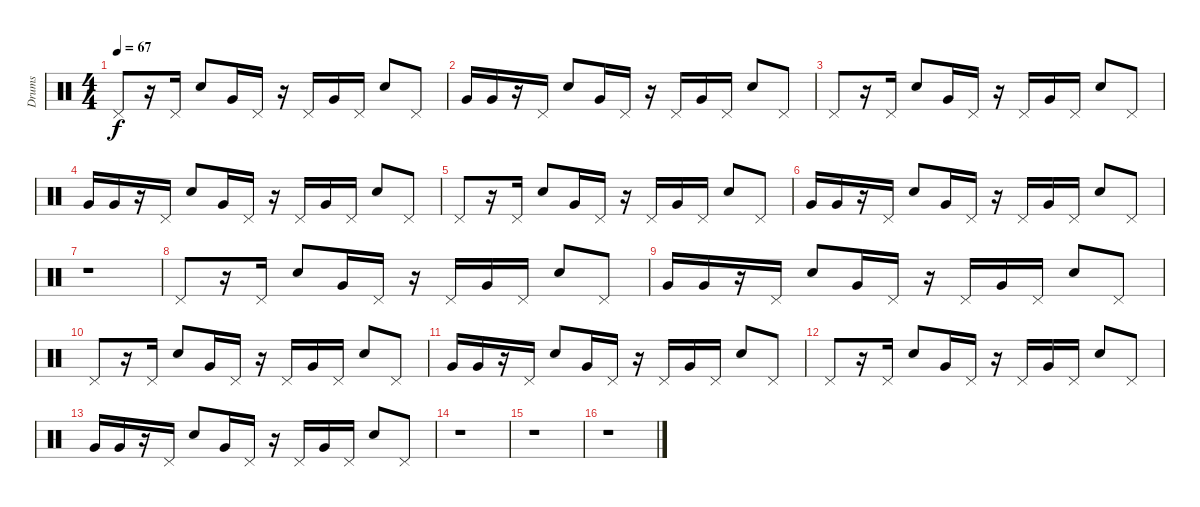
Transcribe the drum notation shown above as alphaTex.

\track ("Drums" "Drums") {instrument percussion}
\staff {score}
\articulation defaults
\ts (4 4)
\tempo 67
\clef neutral
\ks c "Pedal Hi-Hat (hit)".8{dy f}
r.16 "Pedal Hi-Hat (hit)".16 "Electric Snare (hit)".8 "Very Low Tom (hit)".16 "Pedal Hi-Hat (hit)".16 r.16 "Pedal Hi-Hat (hit)".16 "Very Low Tom (hit)".16 "Pedal Hi-Hat (hit)".16 "Electric Snare (hit)".8 "Pedal Hi-Hat (hit)".8 |
"Very Low Tom (hit)".16 "Very Low Tom (hit)".16 r.16 "Pedal Hi-Hat (hit)".16 "Electric Snare (hit)".8 "Very Low Tom (hit)".16 "Pedal Hi-Hat (hit)".16 r.16 "Pedal Hi-Hat (hit)".16 "Very Low Tom (hit)".16 "Pedal Hi-Hat (hit)".16 "Electric Snare (hit)".8 "Pedal Hi-Hat (hit)".8 |
"Pedal Hi-Hat (hit)".8 r.16 "Pedal Hi-Hat (hit)".16 "Electric Snare (hit)".8 "Very Low Tom (hit)".16 "Pedal Hi-Hat (hit)".16 r.16 "Pedal Hi-Hat (hit)".16 "Very Low Tom (hit)".16 "Pedal Hi-Hat (hit)".16 "Electric Snare (hit)".8 "Pedal Hi-Hat (hit)".8 |
"Very Low Tom (hit)".16 "Very Low Tom (hit)".16 r.16 "Pedal Hi-Hat (hit)".16 "Electric Snare (hit)".8 "Very Low Tom (hit)".16 "Pedal Hi-Hat (hit)".16 r.16 "Pedal Hi-Hat (hit)".16 "Very Low Tom (hit)".16 "Pedal Hi-Hat (hit)".16 "Electric Snare (hit)".8 "Pedal Hi-Hat (hit)".8 |
"Pedal Hi-Hat (hit)".8 r.16 "Pedal Hi-Hat (hit)".16 "Electric Snare (hit)".8 "Very Low Tom (hit)".16 "Pedal Hi-Hat (hit)".16 r.16 "Pedal Hi-Hat (hit)".16 "Very Low Tom (hit)".16 "Pedal Hi-Hat (hit)".16 "Electric Snare (hit)".8 "Pedal Hi-Hat (hit)".8 |
"Very Low Tom (hit)".16 "Very Low Tom (hit)".16 r.16 "Pedal Hi-Hat (hit)".16 "Electric Snare (hit)".8 "Very Low Tom (hit)".16 "Pedal Hi-Hat (hit)".16 r.16 "Pedal Hi-Hat (hit)".16 "Very Low Tom (hit)".16 "Pedal Hi-Hat (hit)".16 "Electric Snare (hit)".8 "Pedal Hi-Hat (hit)".8 |
r.1 |
"Pedal Hi-Hat (hit)".8 r.16 "Pedal Hi-Hat (hit)".16 "Electric Snare (hit)".8 "Very Low Tom (hit)".16 "Pedal Hi-Hat (hit)".16 r.16 "Pedal Hi-Hat (hit)".16 "Very Low Tom (hit)".16 "Pedal Hi-Hat (hit)".16 "Electric Snare (hit)".8 "Pedal Hi-Hat (hit)".8 |
"Very Low Tom (hit)".16 "Very Low Tom (hit)".16 r.16 "Pedal Hi-Hat (hit)".16 "Electric Snare (hit)".8 "Very Low Tom (hit)".16 "Pedal Hi-Hat (hit)".16 r.16 "Pedal Hi-Hat (hit)".16 "Very Low Tom (hit)".16 "Pedal Hi-Hat (hit)".16 "Electric Snare (hit)".8 "Pedal Hi-Hat (hit)".8 |
"Pedal Hi-Hat (hit)".8 r.16 "Pedal Hi-Hat (hit)".16 "Electric Snare (hit)".8 "Very Low Tom (hit)".16 "Pedal Hi-Hat (hit)".16 r.16 "Pedal Hi-Hat (hit)".16 "Very Low Tom (hit)".16 "Pedal Hi-Hat (hit)".16 "Electric Snare (hit)".8 "Pedal Hi-Hat (hit)".8 |
"Very Low Tom (hit)".16 "Very Low Tom (hit)".16 r.16 "Pedal Hi-Hat (hit)".16 "Electric Snare (hit)".8 "Very Low Tom (hit)".16 "Pedal Hi-Hat (hit)".16 r.16 "Pedal Hi-Hat (hit)".16 "Very Low Tom (hit)".16 "Pedal Hi-Hat (hit)".16 "Electric Snare (hit)".8 "Pedal Hi-Hat (hit)".8 |
"Pedal Hi-Hat (hit)".8 r.16 "Pedal Hi-Hat (hit)".16 "Electric Snare (hit)".8 "Very Low Tom (hit)".16 "Pedal Hi-Hat (hit)".16 r.16 "Pedal Hi-Hat (hit)".16 "Very Low Tom (hit)".16 "Pedal Hi-Hat (hit)".16 "Electric Snare (hit)".8 "Pedal Hi-Hat (hit)".8 |
"Very Low Tom (hit)".16 "Very Low Tom (hit)".16 r.16 "Pedal Hi-Hat (hit)".16 "Electric Snare (hit)".8 "Very Low Tom (hit)".16 "Pedal Hi-Hat (hit)".16 r.16 "Pedal Hi-Hat (hit)".16 "Very Low Tom (hit)".16 "Pedal Hi-Hat (hit)".16 "Electric Snare (hit)".8 "Pedal Hi-Hat (hit)".8 |
r.1 |
r.1 |
r.1
